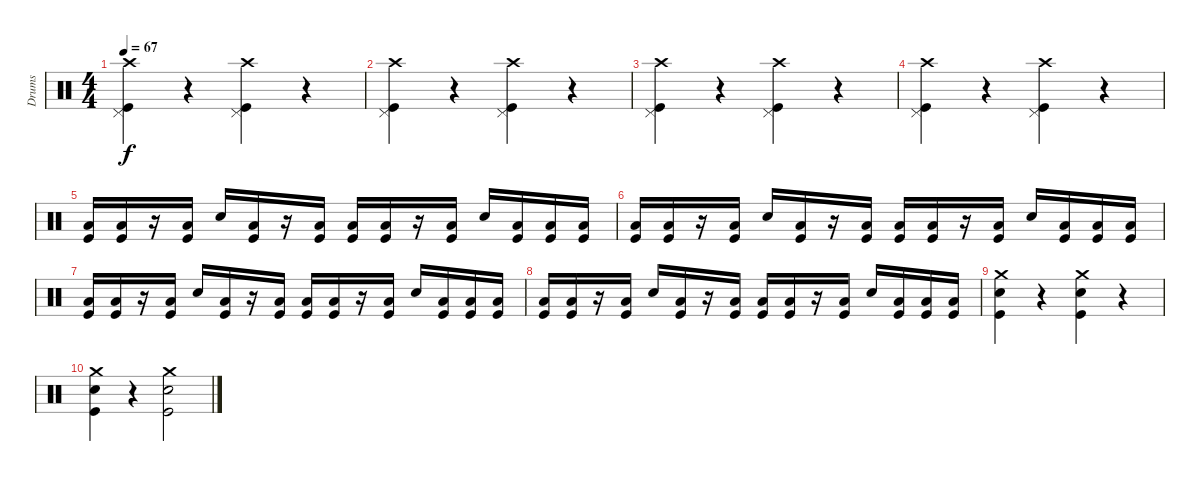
\track ("Drums" "Drums") {instrument percussion}
\staff {score}
\articulation defaults
\ts (4 4)
\tempo 67
\clef neutral
\ks c
("Crash high (hit)" "Pedal Hi-Hat (hit)" "Kick (hit)").4{dy f} r.4 ("Kick (hit)" "Crash high (hit)" "Pedal Hi-Hat (hit)").4 r.4 |
("Pedal Hi-Hat (hit)" "Kick (hit)" "Crash high (hit)").4 r.4 ("Crash high (hit)" "Pedal Hi-Hat (hit)" "Kick (hit)").4 r.4 |
("Crash high (hit)" "Pedal Hi-Hat (hit)" "Kick (hit)").4 r.4 ("Pedal Hi-Hat (hit)" "Kick (hit)" "Crash high (hit)").4 r.4 |
("Kick (hit)" "Crash high (hit)" "Pedal Hi-Hat (hit)").4 r.4 ("Pedal Hi-Hat (hit)" "Crash high (hit)" "Kick (hit)").4 r.4 |
("Kick (hit)" "Low Tom (hit)").16 ("Low Tom (hit)" "Kick (hit)").16 r.16 ("Low Tom (hit)" "Kick (hit)").16 "Metronome (bell)".16 ("Low Tom (hit)" "Kick (hit)").16 r.16 ("Low Tom (hit)" "Kick (hit)").16 ("Kick (hit)" "Low Tom (hit)").16 ("Kick (hit)" "Low Tom (hit)").16 r.16 ("Low Tom (hit)" "Kick (hit)").16 "Metronome (bell)".16 ("Low Tom (hit)" "Kick (hit)").16 ("Low Tom (hit)" "Kick (hit)").16 ("Kick (hit)" "Low Tom (hit)").16 |
("Low Tom (hit)" "Kick (hit)").16 ("Low Tom (hit)" "Kick (hit)").16 r.16 ("Kick (hit)" "Low Tom (hit)").16 "Metronome (bell)".16 ("Kick (hit)" "Low Tom (hit)").16 r.16 ("Kick (hit)" "Low Tom (hit)").16 ("Kick (hit)" "Low Tom (hit)").16 ("Low Tom (hit)" "Kick (hit)").16 r.16 ("Low Tom (hit)" "Kick (hit)").16 "Metronome (bell)".16 ("Low Tom (hit)" "Kick (hit)").16 ("Kick (hit)" "Low Tom (hit)").16 ("Kick (hit)" "Low Tom (hit)").16 |
("Low Tom (hit)" "Kick (hit)").16 ("Kick (hit)" "Low Tom (hit)").16 r.16 ("Kick (hit)" "Low Tom (hit)").16 "Metronome (bell)".16 ("Kick (hit)" "Low Tom (hit)").16 r.16 ("Low Tom (hit)" "Kick (hit)").16 ("Kick (hit)" "Low Tom (hit)").16 ("Low Tom (hit)" "Kick (hit)").16 r.16 ("Kick (hit)" "Low Tom (hit)").16 "Metronome (bell)".16 ("Kick (hit)" "Low Tom (hit)").16 ("Kick (hit)" "Low Tom (hit)").16 ("Low Tom (hit)" "Kick (hit)").16 |
("Low Tom (hit)" "Kick (hit)").16 ("Low Tom (hit)" "Kick (hit)").16 r.16 ("Kick (hit)" "Low Tom (hit)").16 "Metronome (bell)".16 ("Kick (hit)" "Low Tom (hit)").16 r.16 ("Low Tom (hit)" "Kick (hit)").16 ("Low Tom (hit)" "Kick (hit)").16 ("Low Tom (hit)" "Kick (hit)").16 r.16 ("Kick (hit)" "Low Tom (hit)").16 "Metronome (bell)".16 ("Kick (hit)" "Low Tom (hit)").16 ("Kick (hit)" "Low Tom (hit)").16 ("Low Tom (hit)" "Kick (hit)").16 |
("Electric Snare (hit)" "Kick (hit)" "Crash medium (hit)").4 r.4 ("Kick (hit)" "Electric Snare (hit)" "Crash medium (hit)").4 r.4 |
("Electric Snare (hit)" "Crash medium (hit)" "Kick (hit)").4 r.4 ("Electric Snare (hit)" "Kick (hit)" "Crash medium (hit)").2
